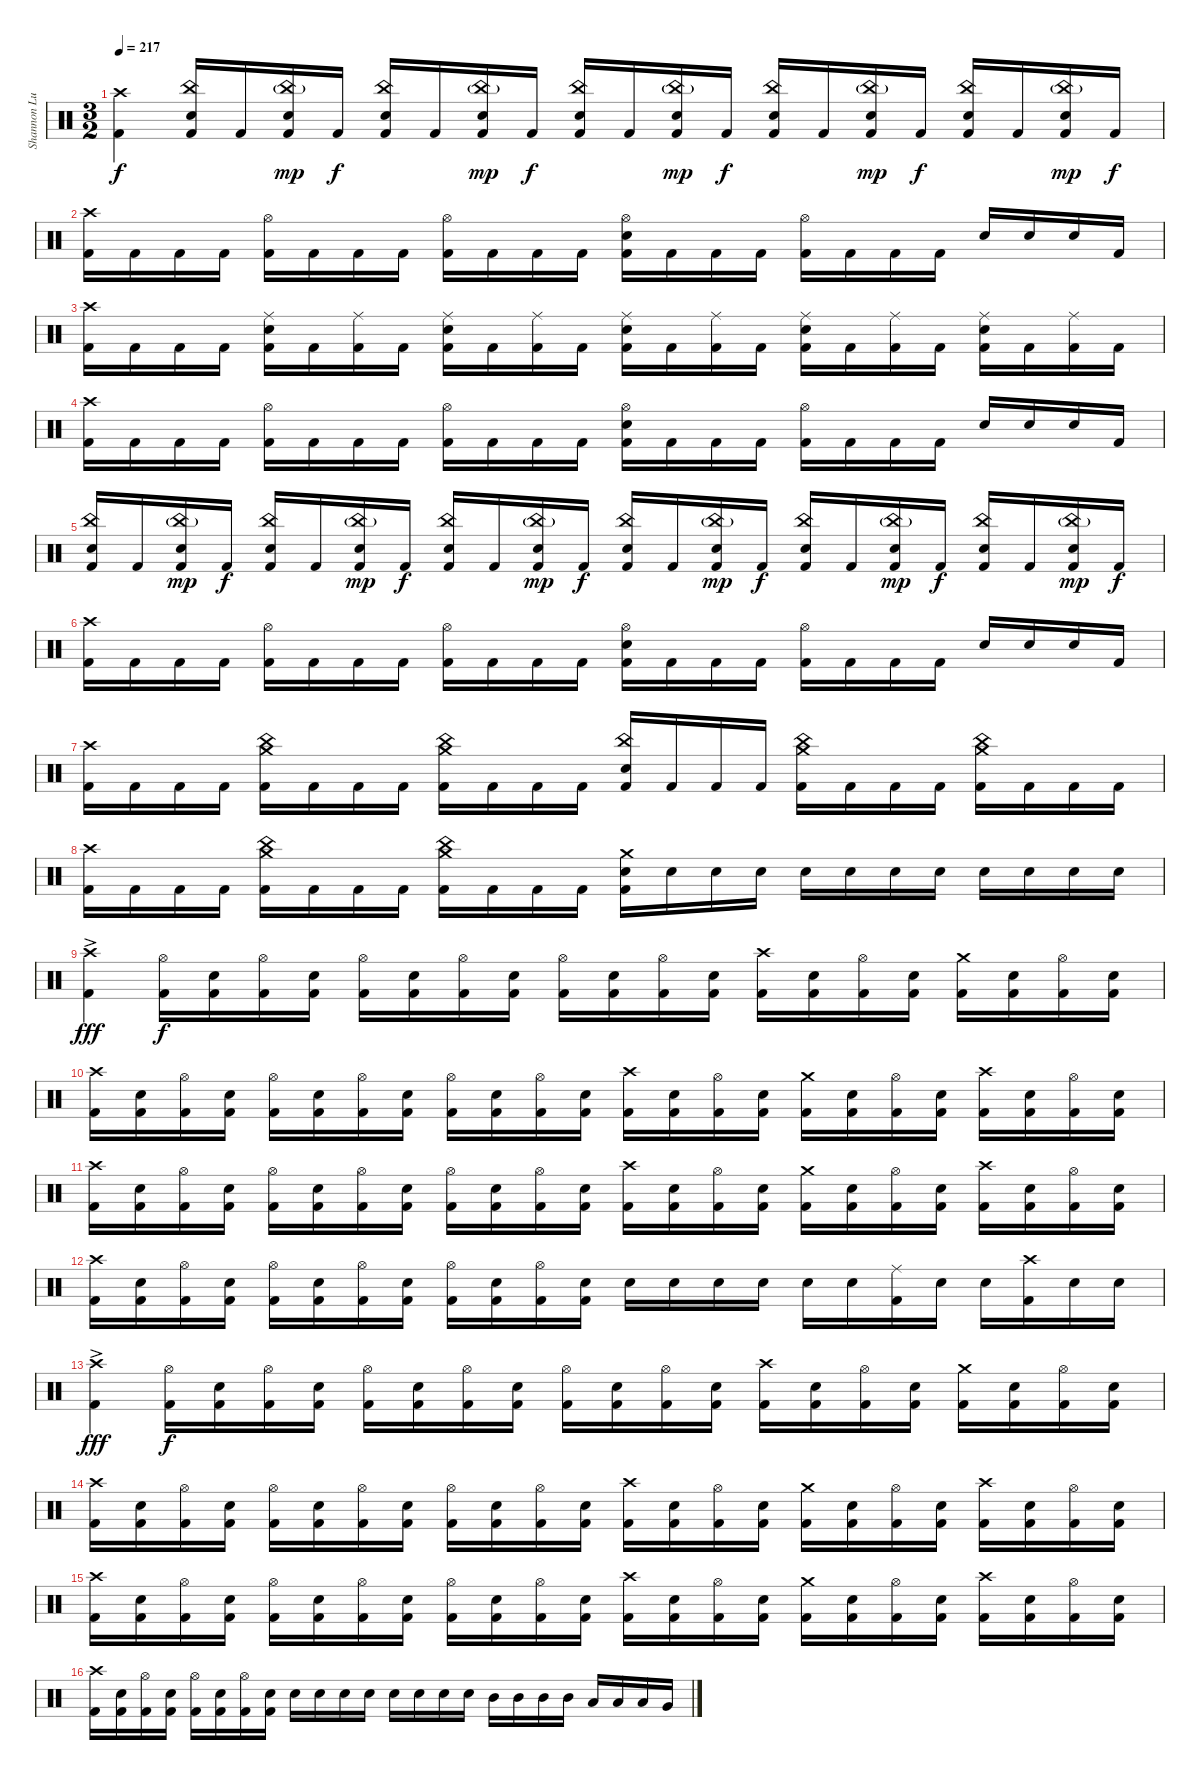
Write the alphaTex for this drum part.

\track ("Shannon Lucas [Drums (Since 2007)]" "Shannon Lu") {instrument percussion}
\staff {score}
\articulation defaults
\ts (3 2)
\tempo 217
\clef neutral
\ks c
("Crash high (hit)" "Kick (hit) 2").4{dy f} ("China (hit)" "Snare (hit) 2" "Kick (hit) 2").16 "Kick (hit) 2".16 ("China (hit)"{g} "Snare (hit) 2" "Kick (hit) 2").16{dy mp} "Kick (hit) 2".16{dy f} ("China (hit)" "Snare (hit) 2" "Kick (hit) 2").16 "Kick (hit) 2".16 ("China (hit)"{g} "Snare (hit) 2" "Kick (hit) 2").16{dy mp} "Kick (hit) 2".16{dy f} ("China (hit)" "Snare (hit) 2" "Kick (hit) 2").16 "Kick (hit) 2".16 ("China (hit)"{g} "Snare (hit) 2" "Kick (hit) 2").16{dy mp} "Kick (hit) 2".16{dy f} ("China (hit)" "Snare (hit) 2" "Kick (hit) 2").16 "Kick (hit) 2".16 ("China (hit)"{g} "Snare (hit) 2" "Kick (hit) 2").16{dy mp} "Kick (hit) 2".16{dy f} ("China (hit)" "Snare (hit) 2" "Kick (hit) 2").16 "Kick (hit) 2".16 ("China (hit)"{g} "Snare (hit) 2" "Kick (hit) 2").16{dy mp} "Kick (hit) 2".16{dy f} |
("Crash high (hit)" "Kick (hit) 2").16 "Kick (hit) 2".16 "Kick (hit) 2".16 "Kick (hit) 2".16 ("Hi-Hat (open)" "Kick (hit) 2").16 "Kick (hit) 2".16 "Kick (hit) 2".16 "Kick (hit) 2".16 ("Hi-Hat (open)" "Kick (hit) 2").16 "Kick (hit) 2".16 "Kick (hit) 2".16 "Kick (hit) 2".16 ("Hi-Hat (open)" "Snare (hit) 2" "Kick (hit) 2").16 "Kick (hit) 2".16 "Kick (hit) 2".16 "Kick (hit) 2".16 ("Hi-Hat (open)" "Kick (hit) 2").16 "Kick (hit) 2".16 "Kick (hit) 2".16 "Kick (hit) 2".16 "Snare (hit) 2".16 "Snare (hit) 2".16 "Snare (hit) 2".16 "Kick (hit) 2".16 |
("Crash high (hit)" "Kick (hit) 2").16 "Kick (hit) 2".16 "Kick (hit) 2".16 "Kick (hit) 2".16 ("Ride (middle)" "Snare (hit) 2" "Kick (hit) 2").16 "Kick (hit) 2".16 ("Ride (middle)" "Kick (hit) 2").16 "Kick (hit) 2".16 ("Ride (middle)" "Snare (hit) 2" "Kick (hit) 2").16 "Kick (hit) 2".16 ("Ride (middle)" "Kick (hit) 2").16 "Kick (hit) 2".16 ("Ride (middle)" "Snare (hit) 2" "Kick (hit) 2").16 "Kick (hit) 2".16 ("Ride (middle)" "Kick (hit) 2").16 "Kick (hit) 2".16 ("Ride (middle)" "Snare (hit) 2" "Kick (hit) 2").16 "Kick (hit) 2".16 ("Ride (middle)" "Kick (hit) 2").16 "Kick (hit) 2".16 ("Ride (middle)" "Snare (hit) 2" "Kick (hit) 2").16 "Kick (hit) 2".16 ("Ride (middle)" "Kick (hit) 2").16 "Kick (hit) 2".16 |
("Crash high (hit)" "Kick (hit) 2").16 "Kick (hit) 2".16 "Kick (hit) 2".16 "Kick (hit) 2".16 ("Hi-Hat (open)" "Kick (hit) 2").16 "Kick (hit) 2".16 "Kick (hit) 2".16 "Kick (hit) 2".16 ("Hi-Hat (open)" "Kick (hit) 2").16 "Kick (hit) 2".16 "Kick (hit) 2".16 "Kick (hit) 2".16 ("Hi-Hat (open)" "Snare (hit) 2" "Kick (hit) 2").16 "Kick (hit) 2".16 "Kick (hit) 2".16 "Kick (hit) 2".16 ("Hi-Hat (open)" "Kick (hit) 2").16 "Kick (hit) 2".16 "Kick (hit) 2".16 "Kick (hit) 2".16 "Snare (hit) 2".16 "Snare (hit) 2".16 "Snare (hit) 2".16 "Kick (hit) 2".16 |
("China (hit)" "Snare (hit) 2" "Kick (hit) 2").16 "Kick (hit) 2".16 ("China (hit)"{g} "Snare (hit) 2" "Kick (hit) 2").16{dy mp} "Kick (hit) 2".16{dy f} ("China (hit)" "Snare (hit) 2" "Kick (hit) 2").16 "Kick (hit) 2".16 ("China (hit)"{g} "Snare (hit) 2" "Kick (hit) 2").16{dy mp} "Kick (hit) 2".16{dy f} ("China (hit)" "Snare (hit) 2" "Kick (hit) 2").16 "Kick (hit) 2".16 ("China (hit)"{g} "Snare (hit) 2" "Kick (hit) 2").16{dy mp} "Kick (hit) 2".16{dy f} ("China (hit)" "Snare (hit) 2" "Kick (hit) 2").16 "Kick (hit) 2".16 ("China (hit)"{g} "Snare (hit) 2" "Kick (hit) 2").16{dy mp} "Kick (hit) 2".16{dy f} ("China (hit)" "Snare (hit) 2" "Kick (hit) 2").16 "Kick (hit) 2".16 ("China (hit)"{g} "Snare (hit) 2" "Kick (hit) 2").16{dy mp} "Kick (hit) 2".16{dy f} ("China (hit)" "Snare (hit) 2" "Kick (hit) 2").16 "Kick (hit) 2".16 ("China (hit)"{g} "Snare (hit) 2" "Kick (hit) 2").16{dy mp} "Kick (hit) 2".16{dy f} |
("Crash high (hit)" "Kick (hit) 2").16 "Kick (hit) 2".16 "Kick (hit) 2".16 "Kick (hit) 2".16 ("Hi-Hat (open)" "Kick (hit) 2").16 "Kick (hit) 2".16 "Kick (hit) 2".16 "Kick (hit) 2".16 ("Hi-Hat (open)" "Kick (hit) 2").16 "Kick (hit) 2".16 "Kick (hit) 2".16 "Kick (hit) 2".16 ("Hi-Hat (open)" "Snare (hit) 2" "Kick (hit) 2").16 "Kick (hit) 2".16 "Kick (hit) 2".16 "Kick (hit) 2".16 ("Hi-Hat (open)" "Kick (hit) 2").16 "Kick (hit) 2".16 "Kick (hit) 2".16 "Kick (hit) 2".16 "Snare (hit) 2".16 "Snare (hit) 2".16 "Snare (hit) 2".16 "Kick (hit) 2".16 |
("Crash high (hit)" "Kick (hit) 2").16 "Kick (hit) 2".16 "Kick (hit) 2".16 "Kick (hit) 2".16 ("Crash medium (hit)" "China (hit)" "Kick (hit) 2").16 "Kick (hit) 2".16 "Kick (hit) 2".16 "Kick (hit) 2".16 ("Crash medium (hit)" "China (hit)" "Kick (hit) 2").16 "Kick (hit) 2".16 "Kick (hit) 2".16 "Kick (hit) 2".16 ("Snare (hit) 2" "China (hit)" "Kick (hit) 2").16 "Kick (hit) 2".16 "Kick (hit) 2".16 "Kick (hit) 2".16 ("Crash medium (hit)" "China (hit)" "Kick (hit) 2").16 "Kick (hit) 2".16 "Kick (hit) 2".16 "Kick (hit) 2".16 ("Crash medium (hit)" "China (hit)" "Kick (hit) 2").16 "Kick (hit) 2".16 "Kick (hit) 2".16 "Kick (hit) 2".16 |
("Crash high (hit)" "Kick (hit) 2").16 "Kick (hit) 2".16 "Kick (hit) 2".16 "Kick (hit) 2".16 ("Crash medium (hit)" "China (hit)" "Kick (hit) 2").16 "Kick (hit) 2".16 "Kick (hit) 2".16 "Kick (hit) 2".16 ("Crash medium (hit)" "China (hit)" "Kick (hit) 2").16 "Kick (hit) 2".16 "Kick (hit) 2".16 "Kick (hit) 2".16 ("Snare (hit) 2" "Crash medium (hit)" "Kick (hit) 2").16 "Snare (hit) 2".16 "Snare (hit) 2".16 "Snare (hit) 2".16 "Snare (hit) 2".16 "Snare (hit) 2".16 "Snare (hit) 2".16 "Snare (hit) 2".16 "Snare (hit) 2".16 "Snare (hit) 2".16 "Snare (hit) 2".16 "Snare (hit) 2".16 |
("Crash high (hit)"{ac} "Kick (hit) 2").4{dy fff} ("Hi-Hat (open)" "Kick (hit) 2").16{dy f} ("Snare (hit) 2" "Kick (hit) 2").16 ("Hi-Hat (open)" "Kick (hit) 2").16 ("Snare (hit) 2" "Kick (hit) 2").16 ("Hi-Hat (open)" "Kick (hit) 2").16 ("Snare (hit) 2" "Kick (hit) 2").16 ("Hi-Hat (open)" "Kick (hit) 2").16 ("Snare (hit) 2" "Kick (hit) 2").16 ("Hi-Hat (open)" "Kick (hit) 2").16 ("Snare (hit) 2" "Kick (hit) 2").16 ("Hi-Hat (open)" "Kick (hit) 2").16 ("Snare (hit) 2" "Kick (hit) 2").16 ("Crash high (hit)" "Kick (hit) 2").16 ("Snare (hit) 2" "Kick (hit) 2").16 ("Hi-Hat (open)" "Kick (hit) 2").16 ("Snare (hit) 2" "Kick (hit) 2").16 ("Crash medium (hit)" "Kick (hit) 2").16 ("Snare (hit) 2" "Kick (hit) 2").16 ("Hi-Hat (open)" "Kick (hit) 2").16 ("Snare (hit) 2" "Kick (hit) 2").16 |
("Crash high (hit)" "Kick (hit) 2").16 ("Snare (hit) 2" "Kick (hit) 2").16 ("Hi-Hat (open)" "Kick (hit) 2").16 ("Snare (hit) 2" "Kick (hit) 2").16 ("Hi-Hat (open)" "Kick (hit) 2").16 ("Snare (hit) 2" "Kick (hit) 2").16 ("Hi-Hat (open)" "Kick (hit) 2").16 ("Snare (hit) 2" "Kick (hit) 2").16 ("Hi-Hat (open)" "Kick (hit) 2").16 ("Snare (hit) 2" "Kick (hit) 2").16 ("Hi-Hat (open)" "Kick (hit) 2").16 ("Snare (hit) 2" "Kick (hit) 2").16 ("Crash high (hit)" "Kick (hit) 2").16 ("Snare (hit) 2" "Kick (hit) 2").16 ("Hi-Hat (open)" "Kick (hit) 2").16 ("Snare (hit) 2" "Kick (hit) 2").16 ("Crash medium (hit)" "Kick (hit) 2").16 ("Snare (hit) 2" "Kick (hit) 2").16 ("Hi-Hat (open)" "Kick (hit) 2").16 ("Snare (hit) 2" "Kick (hit) 2").16 ("Crash high (hit)" "Kick (hit) 2").16 ("Snare (hit) 2" "Kick (hit) 2").16 ("Hi-Hat (open)" "Kick (hit) 2").16 ("Snare (hit) 2" "Kick (hit) 2").16 |
("Crash high (hit)" "Kick (hit) 2").16 ("Snare (hit) 2" "Kick (hit) 2").16 ("Hi-Hat (open)" "Kick (hit) 2").16 ("Snare (hit) 2" "Kick (hit) 2").16 ("Hi-Hat (open)" "Kick (hit) 2").16 ("Snare (hit) 2" "Kick (hit) 2").16 ("Hi-Hat (open)" "Kick (hit) 2").16 ("Snare (hit) 2" "Kick (hit) 2").16 ("Hi-Hat (open)" "Kick (hit) 2").16 ("Snare (hit) 2" "Kick (hit) 2").16 ("Hi-Hat (open)" "Kick (hit) 2").16 ("Snare (hit) 2" "Kick (hit) 2").16 ("Crash high (hit)" "Kick (hit) 2").16 ("Snare (hit) 2" "Kick (hit) 2").16 ("Hi-Hat (open)" "Kick (hit) 2").16 ("Snare (hit) 2" "Kick (hit) 2").16 ("Crash medium (hit)" "Kick (hit) 2").16 ("Snare (hit) 2" "Kick (hit) 2").16 ("Hi-Hat (open)" "Kick (hit) 2").16 ("Snare (hit) 2" "Kick (hit) 2").16 ("Crash high (hit)" "Kick (hit) 2").16 ("Snare (hit) 2" "Kick (hit) 2").16 ("Hi-Hat (open)" "Kick (hit) 2").16 ("Snare (hit) 2" "Kick (hit) 2").16 |
("Crash high (hit)" "Kick (hit) 2").16 ("Snare (hit) 2" "Kick (hit) 2").16 ("Hi-Hat (open)" "Kick (hit) 2").16 ("Snare (hit) 2" "Kick (hit) 2").16 ("Hi-Hat (open)" "Kick (hit) 2").16 ("Snare (hit) 2" "Kick (hit) 2").16 ("Hi-Hat (open)" "Kick (hit) 2").16 ("Snare (hit) 2" "Kick (hit) 2").16 ("Hi-Hat (open)" "Kick (hit) 2").16 ("Snare (hit) 2" "Kick (hit) 2").16 ("Hi-Hat (open)" "Kick (hit) 2").16 ("Snare (hit) 2" "Kick (hit) 2").16 "Snare (hit) 2".16 "Snare (hit) 2".16 "Snare (hit) 2".16 "Snare (hit) 2".16 "Snare (hit) 2".16 "Snare (hit) 2".16 ("Ride (middle)" "Kick (hit) 2").16 "Snare (hit) 2".16 "Snare (hit) 2".16 ("Crash high (hit)" "Kick (hit) 2").16 "Snare (hit) 2".16 "Snare (hit) 2".16 |
("Crash high (hit)"{ac} "Kick (hit) 2").4{dy fff} ("Hi-Hat (open)" "Kick (hit) 2").16{dy f} ("Snare (hit) 2" "Kick (hit) 2").16 ("Hi-Hat (open)" "Kick (hit) 2").16 ("Snare (hit) 2" "Kick (hit) 2").16 ("Hi-Hat (open)" "Kick (hit) 2").16 ("Snare (hit) 2" "Kick (hit) 2").16 ("Hi-Hat (open)" "Kick (hit) 2").16 ("Snare (hit) 2" "Kick (hit) 2").16 ("Hi-Hat (open)" "Kick (hit) 2").16 ("Snare (hit) 2" "Kick (hit) 2").16 ("Hi-Hat (open)" "Kick (hit) 2").16 ("Snare (hit) 2" "Kick (hit) 2").16 ("Crash high (hit)" "Kick (hit) 2").16 ("Snare (hit) 2" "Kick (hit) 2").16 ("Hi-Hat (open)" "Kick (hit) 2").16 ("Snare (hit) 2" "Kick (hit) 2").16 ("Crash medium (hit)" "Kick (hit) 2").16 ("Snare (hit) 2" "Kick (hit) 2").16 ("Hi-Hat (open)" "Kick (hit) 2").16 ("Snare (hit) 2" "Kick (hit) 2").16 |
("Crash high (hit)" "Kick (hit) 2").16 ("Snare (hit) 2" "Kick (hit) 2").16 ("Hi-Hat (open)" "Kick (hit) 2").16 ("Snare (hit) 2" "Kick (hit) 2").16 ("Hi-Hat (open)" "Kick (hit) 2").16 ("Snare (hit) 2" "Kick (hit) 2").16 ("Hi-Hat (open)" "Kick (hit) 2").16 ("Snare (hit) 2" "Kick (hit) 2").16 ("Hi-Hat (open)" "Kick (hit) 2").16 ("Snare (hit) 2" "Kick (hit) 2").16 ("Hi-Hat (open)" "Kick (hit) 2").16 ("Snare (hit) 2" "Kick (hit) 2").16 ("Crash high (hit)" "Kick (hit) 2").16 ("Snare (hit) 2" "Kick (hit) 2").16 ("Hi-Hat (open)" "Kick (hit) 2").16 ("Snare (hit) 2" "Kick (hit) 2").16 ("Crash medium (hit)" "Kick (hit) 2").16 ("Snare (hit) 2" "Kick (hit) 2").16 ("Hi-Hat (open)" "Kick (hit) 2").16 ("Snare (hit) 2" "Kick (hit) 2").16 ("Crash high (hit)" "Kick (hit) 2").16 ("Snare (hit) 2" "Kick (hit) 2").16 ("Hi-Hat (open)" "Kick (hit) 2").16 ("Snare (hit) 2" "Kick (hit) 2").16 |
("Crash high (hit)" "Kick (hit) 2").16 ("Snare (hit) 2" "Kick (hit) 2").16 ("Hi-Hat (open)" "Kick (hit) 2").16 ("Snare (hit) 2" "Kick (hit) 2").16 ("Hi-Hat (open)" "Kick (hit) 2").16 ("Snare (hit) 2" "Kick (hit) 2").16 ("Hi-Hat (open)" "Kick (hit) 2").16 ("Snare (hit) 2" "Kick (hit) 2").16 ("Hi-Hat (open)" "Kick (hit) 2").16 ("Snare (hit) 2" "Kick (hit) 2").16 ("Hi-Hat (open)" "Kick (hit) 2").16 ("Snare (hit) 2" "Kick (hit) 2").16 ("Crash high (hit)" "Kick (hit) 2").16 ("Snare (hit) 2" "Kick (hit) 2").16 ("Hi-Hat (open)" "Kick (hit) 2").16 ("Snare (hit) 2" "Kick (hit) 2").16 ("Crash medium (hit)" "Kick (hit) 2").16 ("Snare (hit) 2" "Kick (hit) 2").16 ("Hi-Hat (open)" "Kick (hit) 2").16 ("Snare (hit) 2" "Kick (hit) 2").16 ("Crash high (hit)" "Kick (hit) 2").16 ("Snare (hit) 2" "Kick (hit) 2").16 ("Hi-Hat (open)" "Kick (hit) 2").16 ("Snare (hit) 2" "Kick (hit) 2").16 |
("Crash high (hit)" "Kick (hit) 2").16 ("Snare (hit) 2" "Kick (hit) 2").16 ("Hi-Hat (open)" "Kick (hit) 2").16 ("Snare (hit) 2" "Kick (hit) 2").16 ("Hi-Hat (open)" "Kick (hit) 2").16 ("Snare (hit) 2" "Kick (hit) 2").16 ("Hi-Hat (open)" "Kick (hit) 2").16 ("Kick (hit) 2" "Snare (hit) 2").16 "Snare (hit) 2".16 "Snare (hit) 2".16 "Snare (hit) 2".16 "Snare (hit) 2".16 "Snare (hit) 2".16 "Snare (hit) 2".16 "Snare (hit) 2".16 "Snare (hit) 2".16 "Mid Tom (hit)".16 "Mid Tom (hit)".16 "Mid Tom (hit)".16 "Mid Tom (hit)".16 "Low Tom (hit)".16 "Low Tom (hit)".16 "Low Tom (hit)".16 "Very Low Tom (hit)".16
